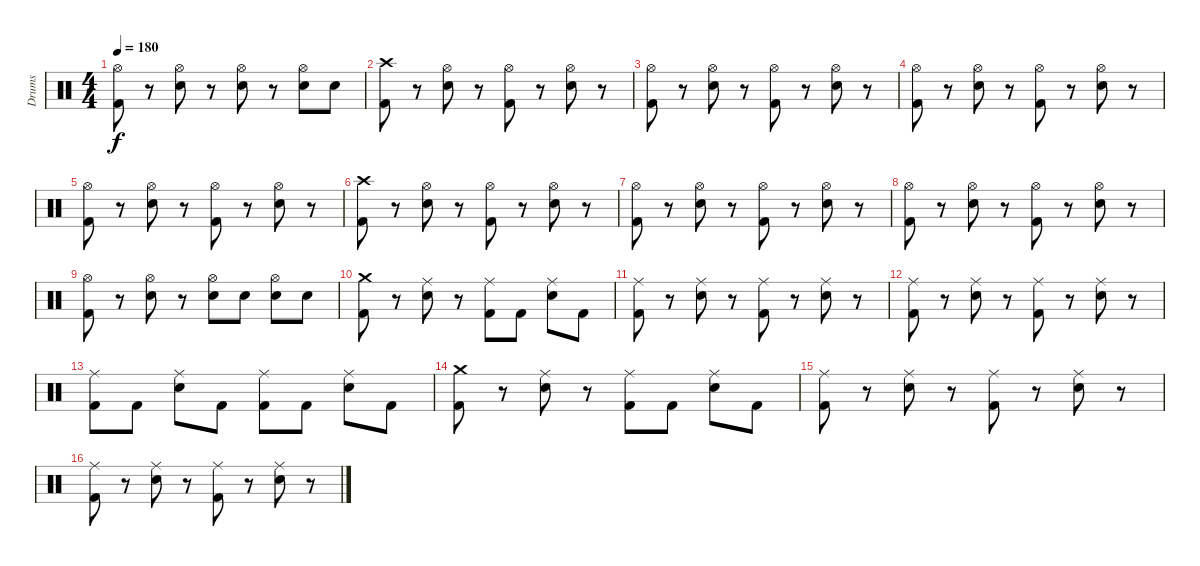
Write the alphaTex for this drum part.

\track ("Drums" "Drums") {instrument percussion}
\staff {score}
\articulation defaults
\ts (4 4)
\tempo 180
\clef neutral
\ks c
("Hi-Hat (open)" "Kick (hit) 2").8{dy f} r.8 ("Hi-Hat (open)" "Snare (hit) 2").8 r.8 ("Hi-Hat (open)" "Snare (hit) 2").8 r.8 ("Hi-Hat (open)" "Snare (hit) 2").8 "Snare (hit) 2".8 |
("Crash high (hit)" "Kick (hit) 2").8 r.8 ("Hi-Hat (open)" "Snare (hit) 2").8 r.8 ("Hi-Hat (open)" "Kick (hit) 2").8 r.8 ("Hi-Hat (open)" "Snare (hit) 2").8 r.8 |
("Hi-Hat (open)" "Kick (hit) 2").8 r.8 ("Hi-Hat (open)" "Snare (hit) 2").8 r.8 ("Hi-Hat (open)" "Kick (hit) 2").8 r.8 ("Hi-Hat (open)" "Snare (hit) 2").8 r.8 |
("Hi-Hat (open)" "Kick (hit) 2").8 r.8 ("Hi-Hat (open)" "Snare (hit) 2").8 r.8 ("Hi-Hat (open)" "Kick (hit) 2").8 r.8 ("Hi-Hat (open)" "Snare (hit) 2").8 r.8 |
("Hi-Hat (open)" "Kick (hit) 2").8 r.8 ("Hi-Hat (open)" "Snare (hit) 2").8 r.8 ("Hi-Hat (open)" "Kick (hit) 2").8 r.8 ("Hi-Hat (open)" "Snare (hit) 2").8 r.8 |
("Crash high (hit)" "Kick (hit) 2").8 r.8 ("Hi-Hat (open)" "Snare (hit) 2").8 r.8 ("Hi-Hat (open)" "Kick (hit) 2").8 r.8 ("Hi-Hat (open)" "Snare (hit) 2").8 r.8 |
("Hi-Hat (open)" "Kick (hit) 2").8 r.8 ("Hi-Hat (open)" "Snare (hit) 2").8 r.8 ("Hi-Hat (open)" "Kick (hit) 2").8 r.8 ("Hi-Hat (open)" "Snare (hit) 2").8 r.8 |
("Hi-Hat (open)" "Kick (hit) 2").8 r.8 ("Hi-Hat (open)" "Snare (hit) 2").8 r.8 ("Hi-Hat (open)" "Kick (hit) 2").8 r.8 ("Hi-Hat (open)" "Snare (hit) 2").8 r.8 |
("Hi-Hat (open)" "Kick (hit) 2").8 r.8 ("Hi-Hat (open)" "Snare (hit) 2").8 r.8 ("Hi-Hat (open)" "Snare (hit) 2").8 "Snare (hit) 2".8 ("Hi-Hat (open)" "Snare (hit) 2").8 "Snare (hit) 2".8 |
("Crash medium (hit)" "Kick (hit) 2").8 r.8 ("Ride (middle)" "Snare (hit) 2").8 r.8 ("Ride (middle)" "Kick (hit) 2").8 "Kick (hit) 2".8 ("Ride (middle)" "Snare (hit) 2").8 "Kick (hit) 2".8 |
("Ride (middle)" "Kick (hit) 2").8 r.8 ("Ride (middle)" "Snare (hit) 2").8 r.8 ("Ride (middle)" "Kick (hit) 2").8 r.8 ("Ride (middle)" "Snare (hit) 2").8 r.8 |
("Ride (middle)" "Kick (hit) 2").8 r.8 ("Ride (middle)" "Snare (hit) 2").8 r.8 ("Ride (middle)" "Kick (hit) 2").8 r.8 ("Ride (middle)" "Snare (hit) 2").8 r.8 |
("Ride (middle)" "Kick (hit) 2").8 "Kick (hit) 2".8 ("Ride (middle)" "Snare (hit) 2").8 "Kick (hit) 2".8 ("Ride (middle)" "Kick (hit) 2").8 "Kick (hit) 2".8 ("Ride (middle)" "Snare (hit) 2").8 "Kick (hit) 2".8 |
("Crash medium (hit)" "Kick (hit) 2").8 r.8 ("Ride (middle)" "Snare (hit) 2").8 r.8 ("Ride (middle)" "Kick (hit) 2").8 "Kick (hit) 2".8 ("Ride (middle)" "Snare (hit) 2").8 "Kick (hit) 2".8 |
("Ride (middle)" "Kick (hit) 2").8 r.8 ("Ride (middle)" "Snare (hit) 2").8 r.8 ("Ride (middle)" "Kick (hit) 2").8 r.8 ("Ride (middle)" "Snare (hit) 2").8 r.8 |
("Ride (middle)" "Kick (hit) 2").8 r.8 ("Ride (middle)" "Snare (hit) 2").8 r.8 ("Ride (middle)" "Kick (hit) 2").8 r.8 ("Ride (middle)" "Snare (hit) 2").8 r.8
